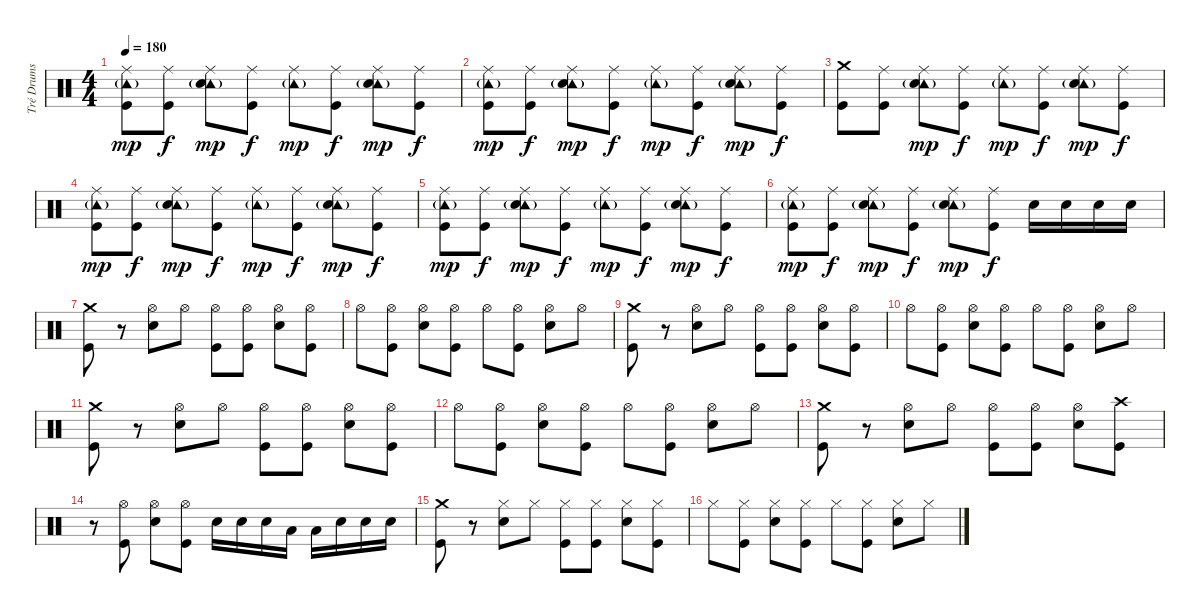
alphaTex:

\track ("Tré Drums" "Tré Drums") {instrument percussion}
\staff {score}
\articulation defaults
\ts (4 4)
\tempo 180
\clef neutral
\ks c
("Tambourine (hit)"{g} "Ride (middle)" "Kick (hit)").8{dy mp} ("Ride (middle)" "Kick (hit)").8{dy f} ("Tambourine (hit)"{g} "Ride (middle)" "Electric Snare (hit)").8{dy mp} ("Ride (middle)" "Kick (hit)").8{dy f} ("Tambourine (hit)"{g} "Ride (middle)").8{dy mp} ("Ride (middle)" "Kick (hit)").8{dy f} ("Tambourine (hit)"{g} "Ride (middle)" "Electric Snare (hit)").8{dy mp} ("Ride (middle)" "Kick (hit)").8{dy f} |
("Tambourine (hit)"{g} "Ride (middle)" "Kick (hit)").8{dy mp} ("Ride (middle)" "Kick (hit)").8{dy f} ("Tambourine (hit)"{g} "Ride (middle)" "Electric Snare (hit)").8{dy mp} ("Ride (middle)" "Kick (hit)").8{dy f} ("Tambourine (hit)"{g} "Ride (middle)").8{dy mp} ("Ride (middle)" "Kick (hit)").8{dy f} ("Tambourine (hit)"{g} "Ride (middle)" "Electric Snare (hit)").8{dy mp} ("Ride (middle)" "Kick (hit)").8{dy f} |
("Crash medium (hit)" "Kick (hit)").8 ("Ride (middle)" "Kick (hit)").8 ("Tambourine (hit)"{g} "Ride (middle)" "Electric Snare (hit)").8{dy mp} ("Ride (middle)" "Kick (hit)").8{dy f} ("Tambourine (hit)"{g} "Ride (middle)").8{dy mp} ("Ride (middle)" "Kick (hit)").8{dy f} ("Tambourine (hit)"{g} "Ride (middle)" "Electric Snare (hit)").8{dy mp} ("Ride (middle)" "Kick (hit)").8{dy f} |
("Tambourine (hit)"{g} "Ride (middle)" "Kick (hit)").8{dy mp} ("Ride (middle)" "Kick (hit)").8{dy f} ("Tambourine (hit)"{g} "Ride (middle)" "Electric Snare (hit)").8{dy mp} ("Ride (middle)" "Kick (hit)").8{dy f} ("Tambourine (hit)"{g} "Ride (middle)").8{dy mp} ("Ride (middle)" "Kick (hit)").8{dy f} ("Tambourine (hit)"{g} "Ride (middle)" "Electric Snare (hit)").8{dy mp} ("Ride (middle)" "Kick (hit)").8{dy f} |
("Tambourine (hit)"{g} "Ride (middle)" "Kick (hit)").8{dy mp} ("Ride (middle)" "Kick (hit)").8{dy f} ("Tambourine (hit)"{g} "Ride (middle)" "Electric Snare (hit)").8{dy mp} ("Ride (middle)" "Kick (hit)").8{dy f} ("Tambourine (hit)"{g} "Ride (middle)").8{dy mp} ("Ride (middle)" "Kick (hit)").8{dy f} ("Tambourine (hit)"{g} "Ride (middle)" "Electric Snare (hit)").8{dy mp} ("Ride (middle)" "Kick (hit)").8{dy f} |
("Tambourine (hit)"{g} "Ride (middle)" "Kick (hit)").8{dy mp} ("Ride (middle)" "Kick (hit)").8{dy f} ("Tambourine (hit)"{g} "Ride (middle)" "Electric Snare (hit)").8{dy mp} ("Ride (middle)" "Kick (hit)").8{dy f} ("Tambourine (hit)"{g} "Ride (middle)" "Electric Snare (hit)").8{dy mp} ("Ride (middle)" "Kick (hit)").8{dy f} "Electric Snare (hit)".16 "Electric Snare (hit)".16 "Electric Snare (hit)".16 "Electric Snare (hit)".16 |
("Crash medium (hit)" "Kick (hit)").8 r.8 ("Hi-Hat (open)" "Electric Snare (hit)").8 "Hi-Hat (open)".8 ("Hi-Hat (open)" "Kick (hit)").8 ("Hi-Hat (open)" "Kick (hit)").8 ("Hi-Hat (open)" "Electric Snare (hit)").8 ("Hi-Hat (open)" "Kick (hit)").8 |
"Hi-Hat (open)".8 ("Hi-Hat (open)" "Kick (hit)").8 ("Hi-Hat (open)" "Electric Snare (hit)").8 ("Hi-Hat (open)" "Kick (hit)").8 "Hi-Hat (open)".8 ("Hi-Hat (open)" "Kick (hit)").8 ("Hi-Hat (open)" "Electric Snare (hit)").8 "Hi-Hat (open)".8 |
("Crash medium (hit)" "Kick (hit)").8 r.8 ("Hi-Hat (open)" "Electric Snare (hit)").8 "Hi-Hat (open)".8 ("Hi-Hat (open)" "Kick (hit)").8 ("Hi-Hat (open)" "Kick (hit)").8 ("Hi-Hat (open)" "Electric Snare (hit)").8 ("Hi-Hat (open)" "Kick (hit)").8 |
"Hi-Hat (open)".8 ("Hi-Hat (open)" "Kick (hit)").8 ("Hi-Hat (open)" "Electric Snare (hit)").8 ("Hi-Hat (open)" "Kick (hit)").8 "Hi-Hat (open)".8 ("Hi-Hat (open)" "Kick (hit)").8 ("Hi-Hat (open)" "Electric Snare (hit)").8 "Hi-Hat (open)".8 |
("Crash medium (hit)" "Kick (hit)").8 r.8 ("Hi-Hat (open)" "Electric Snare (hit)").8 "Hi-Hat (open)".8 ("Hi-Hat (open)" "Kick (hit)").8 ("Hi-Hat (open)" "Kick (hit)").8 ("Hi-Hat (open)" "Electric Snare (hit)").8 ("Hi-Hat (open)" "Kick (hit)").8 |
"Hi-Hat (open)".8 ("Hi-Hat (open)" "Kick (hit)").8 ("Hi-Hat (open)" "Electric Snare (hit)").8 ("Hi-Hat (open)" "Kick (hit)").8 "Hi-Hat (open)".8 ("Hi-Hat (open)" "Kick (hit)").8 ("Hi-Hat (open)" "Electric Snare (hit)").8 "Hi-Hat (open)".8 |
("Crash medium (hit)" "Kick (hit)").8 r.8 ("Hi-Hat (open)" "Electric Snare (hit)").8 "Hi-Hat (open)".8 ("Hi-Hat (open)" "Kick (hit)").8 ("Hi-Hat (open)" "Kick (hit)").8 ("Hi-Hat (open)" "Electric Snare (hit)").8 ("Crash high (hit)" "Kick (hit)").8 |
r.8 ("Hi-Hat (open)" "Kick (hit)").8 ("Hi-Hat (open)" "Electric Snare (hit)").8 ("Hi-Hat (open)" "Kick (hit)").8 "Electric Snare (hit)".16 "Electric Snare (hit)".16 "Electric Snare (hit)".16 "Low Tom (hit)".16 "Low Tom (hit)".16 "Electric Snare (hit)".16 "Electric Snare (hit)".16 "Electric Snare (hit)".16 |
("Crash medium (hit)" "Kick (hit)").8 r.8 ("Hi-Hat (closed)" "Electric Snare (hit)").8 "Hi-Hat (closed)".8 ("Hi-Hat (closed)" "Kick (hit)").8 ("Hi-Hat (closed)" "Kick (hit)").8 ("Hi-Hat (closed)" "Electric Snare (hit)").8 ("Hi-Hat (closed)" "Kick (hit)").8 |
"Hi-Hat (closed)".8 ("Hi-Hat (closed)" "Kick (hit)").8 ("Hi-Hat (closed)" "Electric Snare (hit)").8 ("Hi-Hat (closed)" "Kick (hit)").8 "Hi-Hat (closed)".8 ("Hi-Hat (closed)" "Kick (hit)").8 ("Hi-Hat (closed)" "Electric Snare (hit)").8 "Hi-Hat (closed)".8
